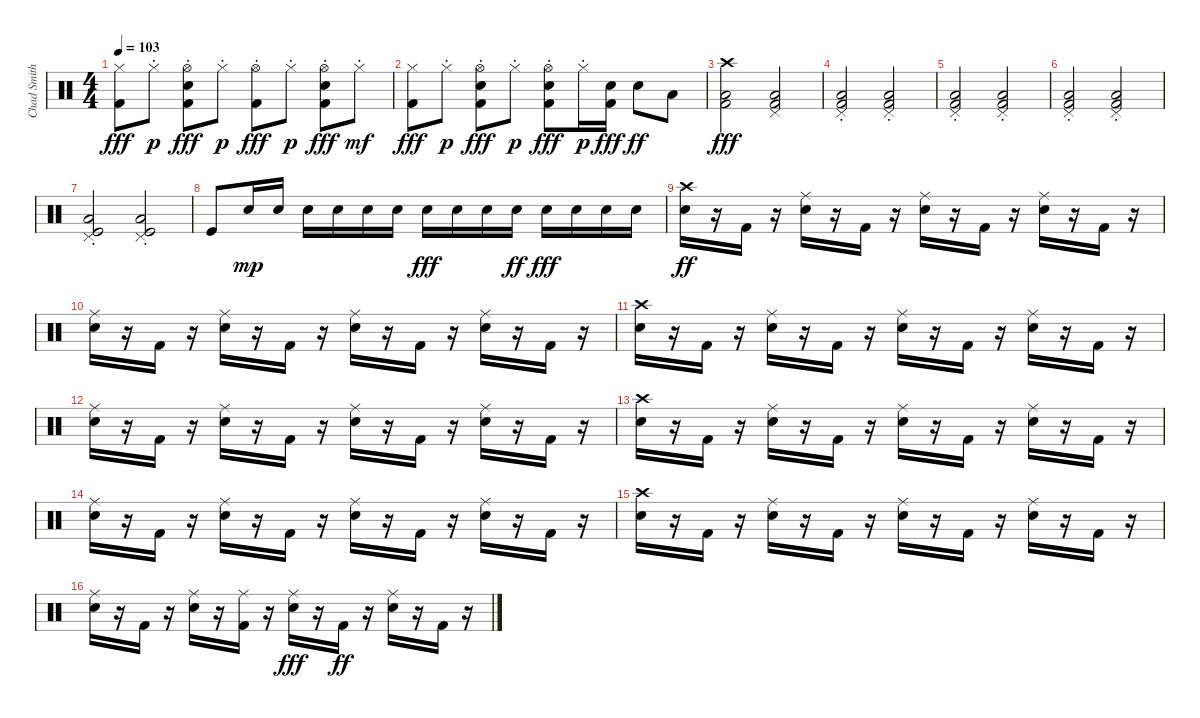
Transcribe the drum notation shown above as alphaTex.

\track ("Chad Smith - Drums" "Chad Smith") {instrument percussion}
\staff {score}
\articulation defaults
\ts (4 4)
\tempo 103
\clef neutral
\ks c
("Hi-Hat (closed)" "Kick (hit) 2").8{dy fff} "Hi-Hat (closed)"{st}.8{dy p} ("Hi-Hat (open)"{st} "Snare (hit) 2" "Kick (hit) 2").8{dy fff} "Hi-Hat (closed)"{st}.8{dy p} ("Hi-Hat (open)"{st} "Kick (hit) 2").8{dy fff} "Hi-Hat (closed)"{st}.8{dy p} ("Hi-Hat (open)"{st} "Snare (hit) 2" "Kick (hit) 2").8{dy fff} "Hi-Hat (closed)"{st}.8{dy mf} |
("Hi-Hat (closed)" "Kick (hit) 2").8{dy fff} "Hi-Hat (closed)"{st}.8{dy p} ("Hi-Hat (open)"{st} "Snare (hit) 2" "Kick (hit) 2").8{dy fff} "Hi-Hat (closed)"{st}.8{dy p} ("Hi-Hat (open)"{st} "Snare (hit) 2" "Kick (hit) 2").8{dy fff} "Hi-Hat (closed)"{st}.16{dy p} ("Snare (hit) 2" "Kick (hit) 2").16{dy fff} "Snare (hit) 2".8{dy ff} "Low Tom (hit)".8 |
("Low Tom (hit)" "Crash high (hit)" "Kick (hit) 2").2{dy fff} ("Low Tom (hit)" "Pedal Hi-Hat (hit)" "Kick (hit) 2").2 |
("Low Tom (hit)" "Pedal Hi-Hat (hit)"{st} "Kick (hit) 2").2 ("Low Tom (hit)" "Pedal Hi-Hat (hit)"{st} "Kick (hit) 2").2 |
("Low Tom (hit)" "Pedal Hi-Hat (hit)"{st} "Kick (hit) 2").2 ("Low Tom (hit)" "Pedal Hi-Hat (hit)"{st} "Kick (hit) 2").2 |
("Low Tom (hit)" "Pedal Hi-Hat (hit)"{st} "Kick (hit) 2").2 ("Low Tom (hit)" "Pedal Hi-Hat (hit)"{st} "Kick (hit) 2").2 |
("Low Tom (hit)" "Pedal Hi-Hat (hit)"{st} "Kick (hit)").2 ("Low Tom (hit)" "Pedal Hi-Hat (hit)"{st} "Kick (hit)").2 |
"Kick (hit)".8 "Snare (hit) 2".16{dy mp} "Snare (hit) 2".16 "Snare (hit) 2".16 "Snare (hit) 2".16 "Snare (hit) 2".16 "Snare (hit) 2".16 "Snare (hit) 2".16{dy fff} "Snare (hit) 2".16 "Snare (hit) 2".16 "Snare (hit) 2".16{dy ff} "Snare (hit) 2".16{dy fff} "Snare (hit) 2".16 "Snare (hit) 2".16 "Snare (hit) 2".16 |
("Crash high (hit)" "Snare (hit) 2").16{dy ff} r.16 "Kick (hit) 2".16 r.16 ("Ride (middle)" "Snare (hit) 2").16 r.16 "Kick (hit) 2".16 r.16 ("Ride (middle)" "Snare (hit) 2").16 r.16 "Kick (hit) 2".16 r.16 ("Ride (middle)" "Snare (hit) 2").16 r.16 "Kick (hit) 2".16 r.16 |
("Ride (middle)" "Snare (hit) 2").16 r.16 "Kick (hit) 2".16 r.16 ("Ride (middle)" "Snare (hit) 2").16 r.16 "Kick (hit) 2".16 r.16 ("Ride (middle)" "Snare (hit) 2").16 r.16 "Kick (hit) 2".16 r.16 ("Ride (middle)" "Snare (hit) 2").16 r.16 "Kick (hit) 2".16 r.16 |
("Crash high (hit)" "Snare (hit) 2").16 r.16 "Kick (hit) 2".16 r.16 ("Ride (middle)" "Snare (hit) 2").16 r.16 "Kick (hit) 2".16 r.16 ("Ride (middle)" "Snare (hit) 2").16 r.16 "Kick (hit) 2".16 r.16 ("Ride (middle)" "Snare (hit) 2").16 r.16 "Kick (hit) 2".16 r.16 |
("Ride (middle)" "Snare (hit) 2").16 r.16 "Kick (hit) 2".16 r.16 ("Ride (middle)" "Snare (hit) 2").16 r.16 "Kick (hit) 2".16 r.16 ("Ride (middle)" "Snare (hit) 2").16 r.16 "Kick (hit) 2".16 r.16 ("Ride (middle)" "Snare (hit) 2").16 r.16 "Kick (hit) 2".16 r.16 |
("Crash high (hit)" "Snare (hit) 2").16 r.16 "Kick (hit) 2".16 r.16 ("Ride (middle)" "Snare (hit) 2").16 r.16 "Kick (hit) 2".16 r.16 ("Ride (middle)" "Snare (hit) 2").16 r.16 "Kick (hit) 2".16 r.16 ("Ride (middle)" "Snare (hit) 2").16 r.16 "Kick (hit) 2".16 r.16 |
("Ride (middle)" "Snare (hit) 2").16 r.16 "Kick (hit) 2".16 r.16 ("Ride (middle)" "Snare (hit) 2").16 r.16 "Kick (hit) 2".16 r.16 ("Ride (middle)" "Snare (hit) 2").16 r.16 "Kick (hit) 2".16 r.16 ("Ride (middle)" "Snare (hit) 2").16 r.16 "Kick (hit) 2".16 r.16 |
("Crash high (hit)" "Snare (hit) 2").16 r.16 "Kick (hit) 2".16 r.16 ("Ride (middle)" "Snare (hit) 2").16 r.16 "Kick (hit) 2".16 r.16 ("Ride (middle)" "Snare (hit) 2").16 r.16 "Kick (hit) 2".16 r.16 ("Ride (middle)" "Snare (hit) 2").16 r.16 "Kick (hit) 2".16 r.16 |
("Ride (middle)" "Snare (hit) 2").16 r.16 "Kick (hit) 2".16 r.16 ("Ride (middle)" "Snare (hit) 2").16 r.16 ("Ride (middle)" "Kick (hit) 2").16 r.16 ("Ride (middle)" "Snare (hit) 2").16{dy fff} r.16 "Kick (hit) 2".16{dy ff} r.16 ("Ride (middle)" "Snare (hit) 2").16 r.16 "Kick (hit) 2".16 r.16
